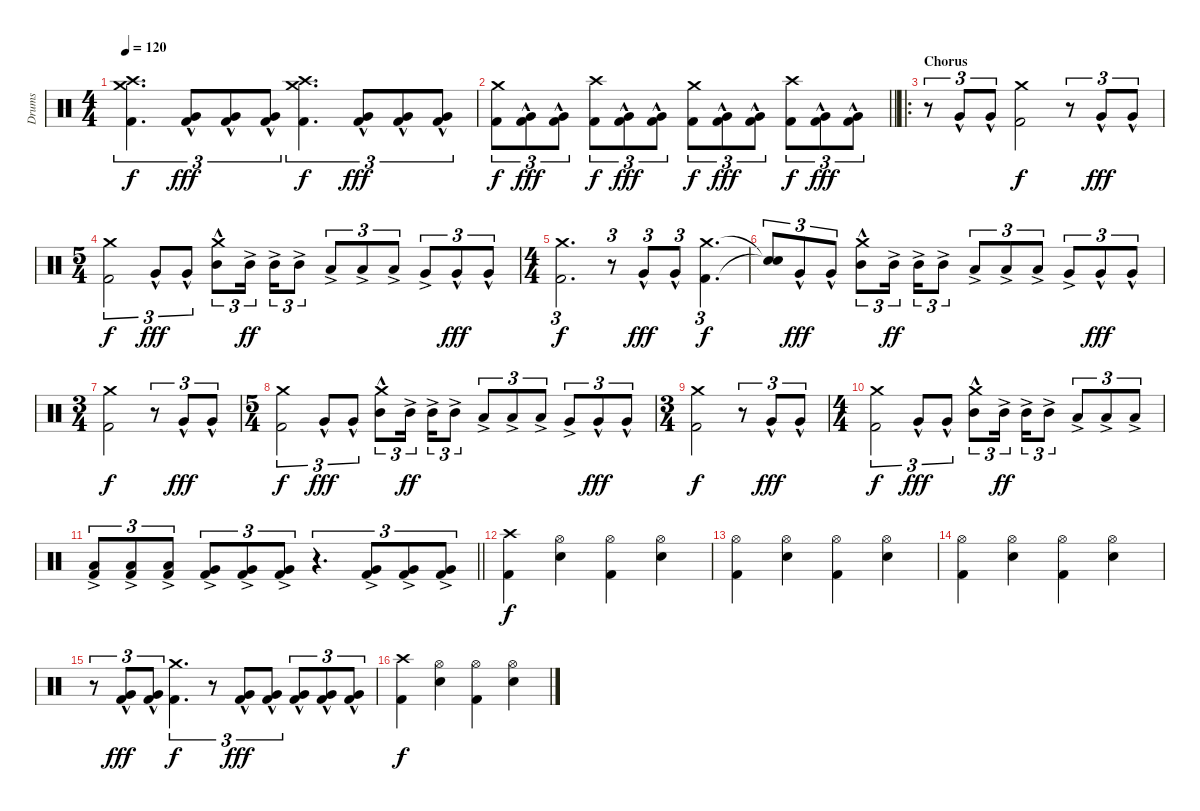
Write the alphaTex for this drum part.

\track ("Drums" "Drums") {instrument percussion}
\staff {score}
\articulation defaults
\ts (4 4)
\tempo 120
\clef neutral
\ks c
("Crash high (hit)" "Crash medium (hit)" "Kick (hit) 2").4{d tu (3 2) dy f} ("Very Low Tom (hit)"{hac} "Kick (hit) 2").8{tu (3 2) dy fff} ("Very Low Tom (hit)"{hac} "Kick (hit) 2").8{tu (3 2)} ("Very Low Tom (hit)"{hac} "Kick (hit) 2").8{tu (3 2)} ("Crash high (hit)" "Crash medium (hit)" "Kick (hit) 2").4{d tu (3 2) dy f} ("Very Low Tom (hit)"{hac} "Kick (hit) 2").8{tu (3 2) dy fff} ("Very Low Tom (hit)"{hac} "Kick (hit) 2").8{tu (3 2)} ("Very Low Tom (hit)"{hac} "Kick (hit) 2").8{tu (3 2)} |
\barLineRight lightlight
("Crash medium (hit)" "Kick (hit) 2").8{tu (3 2) dy f} ("Very Low Tom (hit)"{hac} "Kick (hit) 2").8{tu (3 2) dy fff} ("Very Low Tom (hit)"{hac} "Kick (hit) 2").8{tu (3 2)} ("Crash high (hit)" "Kick (hit) 2").8{tu (3 2) dy f} ("Very Low Tom (hit)"{hac} "Kick (hit) 2").8{tu (3 2) dy fff} ("Very Low Tom (hit)"{hac} "Kick (hit) 2").8{tu (3 2)} ("Crash medium (hit)" "Kick (hit) 2").8{tu (3 2) dy f} ("Very Low Tom (hit)"{hac} "Kick (hit) 2").8{tu (3 2) dy fff} ("Very Low Tom (hit)"{hac} "Kick (hit) 2").8{tu (3 2)} ("Crash high (hit)" "Kick (hit) 2").8{tu (3 2) dy f} ("Very Low Tom (hit)"{hac} "Kick (hit) 2").8{tu (3 2) dy fff} ("Very Low Tom (hit)"{hac} "Kick (hit) 2").8{tu (3 2)} |
\ro
\section ("" "Chorus")
r.8{tu (3 2)} "Very Low Tom (hit)"{hac}.8{tu (3 2)} "Very Low Tom (hit)"{hac}.8{tu (3 2)} ("Crash medium (hit)" "Kick (hit) 2").2{dy f} r.8{tu (3 2)} "Very Low Tom (hit)"{hac}.8{tu (3 2) dy fff} "Very Low Tom (hit)"{hac}.8{tu (3 2)} |
\ts (5 4)
("Crash medium (hit)" "Kick (hit) 2").2{tu (3 2) dy f} "Very Low Tom (hit)"{hac}.8{tu (3 2) dy fff} "Very Low Tom (hit)"{hac}.8{tu (3 2)} ("Crash medium (hit)" "Mid Tom (hit)"{hac}).8{tu (3 2)} "Mid Tom (hit)"{ac}.16{tu (3 2) dy ff beam splitsecondary} "Mid Tom (hit)"{ac}.16{tu (3 2)} "Mid Tom (hit)"{ac}.8{tu (3 2)} "Low Tom (hit)"{ac}.8{tu (3 2)} "Low Tom (hit)"{ac}.8{tu (3 2)} "Low Tom (hit)"{ac}.8{tu (3 2)} "Very Low Tom (hit)"{ac}.8{tu (3 2)} "Very Low Tom (hit)"{hac}.8{tu (3 2) dy fff} "Very Low Tom (hit)"{hac}.8{tu (3 2)} |
\ts (4 4)
("Crash medium (hit)" "Kick (hit) 2").2{d tu (3 2) dy f} r.8{tu (3 2)} "Very Low Tom (hit)"{hac}.8{tu (3 2) dy fff} "Very Low Tom (hit)"{hac}.8{tu (3 2)} ("Crash medium (hit)" "Kick (hit) 2").4{d tu (3 2) dy f} |
("Snare (hit)"{t} "Snare (hit)"{t}).8{tu (3 2)} "Very Low Tom (hit)"{hac}.8{tu (3 2) dy fff} "Very Low Tom (hit)"{hac}.8{tu (3 2)} ("Crash medium (hit)" "Mid Tom (hit)"{hac}).8{tu (3 2)} "Mid Tom (hit)"{ac}.16{tu (3 2) dy ff beam splitsecondary} "Mid Tom (hit)"{ac}.16{tu (3 2)} "Mid Tom (hit)"{ac}.8{tu (3 2)} "Low Tom (hit)"{ac}.8{tu (3 2)} "Low Tom (hit)"{ac}.8{tu (3 2)} "Low Tom (hit)"{ac}.8{tu (3 2)} "Very Low Tom (hit)"{ac}.8{tu (3 2)} "Very Low Tom (hit)"{hac}.8{tu (3 2) dy fff} "Very Low Tom (hit)"{hac}.8{tu (3 2)} |
\ts (3 4)
("Crash medium (hit)" "Kick (hit) 2").2{dy f} r.8{tu (3 2)} "Very Low Tom (hit)"{hac}.8{tu (3 2) dy fff} "Very Low Tom (hit)"{hac}.8{tu (3 2)} |
\ts (5 4)
("Crash medium (hit)" "Kick (hit) 2").2{tu (3 2) dy f} "Very Low Tom (hit)"{hac}.8{tu (3 2) dy fff} "Very Low Tom (hit)"{hac}.8{tu (3 2)} ("Crash medium (hit)" "Mid Tom (hit)"{hac}).8{tu (3 2)} "Mid Tom (hit)"{ac}.16{tu (3 2) dy ff beam splitsecondary} "Mid Tom (hit)"{ac}.16{tu (3 2)} "Mid Tom (hit)"{ac}.8{tu (3 2)} "Low Tom (hit)"{ac}.8{tu (3 2)} "Low Tom (hit)"{ac}.8{tu (3 2)} "Low Tom (hit)"{ac}.8{tu (3 2)} "Very Low Tom (hit)"{ac}.8{tu (3 2)} "Very Low Tom (hit)"{hac}.8{tu (3 2) dy fff} "Very Low Tom (hit)"{hac}.8{tu (3 2)} |
\ts (3 4)
("Crash medium (hit)" "Kick (hit) 2").2{dy f} r.8{tu (3 2)} "Very Low Tom (hit)"{hac}.8{tu (3 2) dy fff} "Very Low Tom (hit)"{hac}.8{tu (3 2)} |
\ts (4 4)
("Crash medium (hit)" "Kick (hit) 2").2{tu (3 2) dy f} "Very Low Tom (hit)"{hac}.8{tu (3 2) dy fff} "Very Low Tom (hit)"{hac}.8{tu (3 2)} ("Crash medium (hit)" "Mid Tom (hit)"{hac}).8{tu (3 2)} "Mid Tom (hit)"{ac}.16{tu (3 2) dy ff beam splitsecondary} "Mid Tom (hit)"{ac}.16{tu (3 2)} "Mid Tom (hit)"{ac}.8{tu (3 2)} "Low Tom (hit)"{ac}.8{tu (3 2)} "Low Tom (hit)"{ac}.8{tu (3 2)} "Low Tom (hit)"{ac}.8{tu (3 2)} |
\barLineRight lightlight
("Low Tom (hit)"{ac} "Kick (hit) 2").8{tu (3 2)} ("Low Tom (hit)"{ac} "Kick (hit) 2").8{tu (3 2)} ("Low Tom (hit)"{ac} "Kick (hit) 2").8{tu (3 2)} ("Very Low Tom (hit)"{ac} "Kick (hit) 2").8{tu (3 2)} ("Very Low Tom (hit)"{ac} "Kick (hit) 2").8{tu (3 2)} ("Very Low Tom (hit)"{ac} "Kick (hit) 2").8{tu (3 2)} r.4{d tu (3 2)} ("Very Low Tom (hit)"{ac} "Kick (hit) 2").8{tu (3 2)} ("Very Low Tom (hit)"{ac} "Kick (hit) 2").8{tu (3 2)} ("Very Low Tom (hit)"{ac} "Kick (hit) 2").8{tu (3 2)} |
("Crash high (hit)" "Kick (hit) 2").4{dy f} ("Hi-Hat (open)" "Snare (hit) 2").4 ("Hi-Hat (open)" "Kick (hit) 2").4 ("Hi-Hat (open)" "Snare (hit) 2").4 |
("Hi-Hat (open)" "Kick (hit) 2").4 ("Hi-Hat (open)" "Snare (hit) 2").4 ("Hi-Hat (open)" "Kick (hit) 2").4 ("Hi-Hat (open)" "Snare (hit) 2").4 |
("Hi-Hat (open)" "Kick (hit) 2").4 ("Hi-Hat (open)" "Snare (hit) 2").4 ("Hi-Hat (open)" "Kick (hit) 2").4 ("Hi-Hat (open)" "Snare (hit) 2").4 |
r.8{tu (3 2)} ("Very Low Tom (hit)"{hac} "Kick (hit) 2").8{tu (3 2) dy fff} ("Very Low Tom (hit)"{hac} "Kick (hit) 2").8{tu (3 2)} ("Crash medium (hit)" "Kick (hit) 2").4{d tu (3 2) dy f} r.8{tu (3 2)} ("Very Low Tom (hit)"{hac} "Kick (hit) 2").8{tu (3 2) dy fff} ("Very Low Tom (hit)"{hac} "Kick (hit) 2").8{tu (3 2)} ("Very Low Tom (hit)"{hac} "Kick (hit) 2").8{tu (3 2)} ("Very Low Tom (hit)"{hac} "Kick (hit) 2").8{tu (3 2)} ("Very Low Tom (hit)"{hac} "Kick (hit) 2").8{tu (3 2)} |
("Crash high (hit)" "Kick (hit) 2").4{dy f} ("Hi-Hat (open)" "Snare (hit) 2").4 ("Hi-Hat (open)" "Kick (hit) 2").4 ("Hi-Hat (open)" "Snare (hit) 2").4
